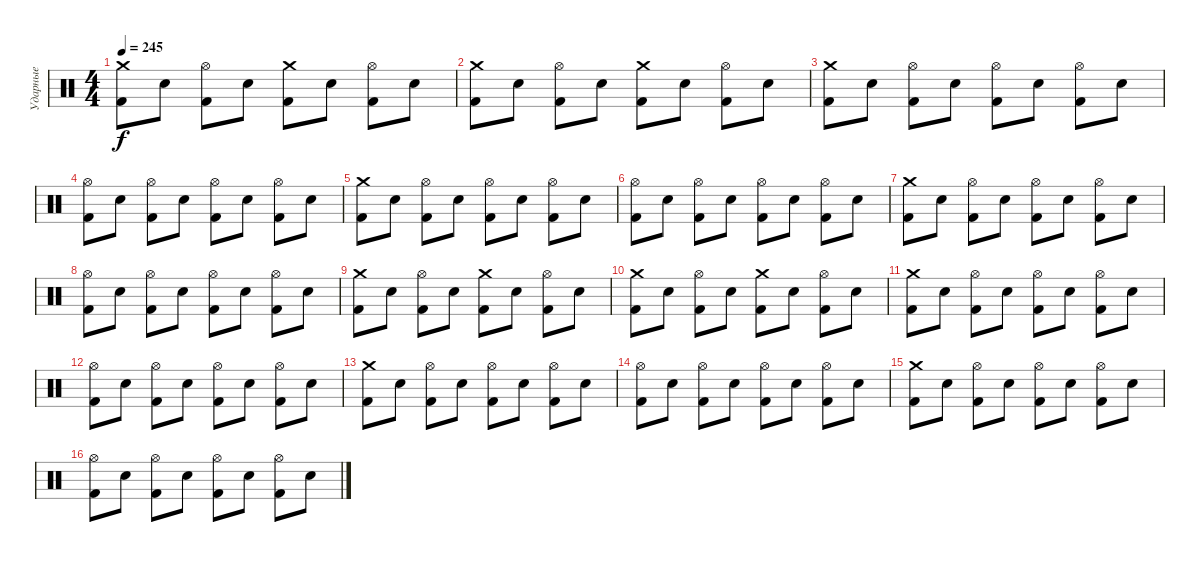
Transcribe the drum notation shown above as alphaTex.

\track ("Ударные" "Ударные") {instrument percussion}
\staff {score}
\articulation defaults
\ts (4 4)
\tempo 245
\clef neutral
\ks c
("Crash medium (hit)" "Kick (hit) 2").8{dy f} "Snare (hit) 2".8 ("Hi-Hat (open)" "Kick (hit) 2").8 "Snare (hit) 2".8 ("Crash medium (hit)" "Kick (hit) 2").8 "Snare (hit) 2".8 ("Hi-Hat (open)" "Kick (hit) 2").8 "Snare (hit) 2".8 |
("Crash medium (hit)" "Kick (hit) 2").8 "Snare (hit) 2".8 ("Hi-Hat (open)" "Kick (hit) 2").8 "Snare (hit) 2".8 ("Crash medium (hit)" "Kick (hit) 2").8 "Snare (hit) 2".8 ("Hi-Hat (open)" "Kick (hit) 2").8 "Snare (hit) 2".8 |
("Crash medium (hit)" "Kick (hit) 2").8 "Snare (hit) 2".8 ("Hi-Hat (open)" "Kick (hit) 2").8 "Snare (hit) 2".8 ("Hi-Hat (open)" "Kick (hit) 2").8 "Snare (hit) 2".8 ("Hi-Hat (open)" "Kick (hit) 2").8 "Snare (hit) 2".8 |
("Hi-Hat (open)" "Kick (hit) 2").8 "Snare (hit) 2".8 ("Hi-Hat (open)" "Kick (hit) 2").8 "Snare (hit) 2".8 ("Hi-Hat (open)" "Kick (hit) 2").8 "Snare (hit) 2".8 ("Hi-Hat (open)" "Kick (hit) 2").8 "Snare (hit) 2".8 |
("Crash medium (hit)" "Kick (hit) 2").8 "Snare (hit) 2".8 ("Hi-Hat (open)" "Kick (hit) 2").8 "Snare (hit) 2".8 ("Hi-Hat (open)" "Kick (hit) 2").8 "Snare (hit) 2".8 ("Hi-Hat (open)" "Kick (hit) 2").8 "Snare (hit) 2".8 |
("Hi-Hat (open)" "Kick (hit) 2").8 "Snare (hit) 2".8 ("Hi-Hat (open)" "Kick (hit) 2").8 "Snare (hit) 2".8 ("Hi-Hat (open)" "Kick (hit) 2").8 "Snare (hit) 2".8 ("Hi-Hat (open)" "Kick (hit) 2").8 "Snare (hit) 2".8 |
("Crash medium (hit)" "Kick (hit) 2").8 "Snare (hit) 2".8 ("Hi-Hat (open)" "Kick (hit) 2").8 "Snare (hit) 2".8 ("Hi-Hat (open)" "Kick (hit) 2").8 "Snare (hit) 2".8 ("Hi-Hat (open)" "Kick (hit) 2").8 "Snare (hit) 2".8 |
("Hi-Hat (open)" "Kick (hit) 2").8 "Snare (hit) 2".8 ("Hi-Hat (open)" "Kick (hit) 2").8 "Snare (hit) 2".8 ("Hi-Hat (open)" "Kick (hit) 2").8 "Snare (hit) 2".8 ("Hi-Hat (open)" "Kick (hit) 2").8 "Snare (hit) 2".8 |
("Crash medium (hit)" "Kick (hit) 2").8 "Snare (hit) 2".8 ("Hi-Hat (open)" "Kick (hit) 2").8 "Snare (hit) 2".8 ("Crash medium (hit)" "Kick (hit) 2").8 "Snare (hit) 2".8 ("Hi-Hat (open)" "Kick (hit) 2").8 "Snare (hit) 2".8 |
("Crash medium (hit)" "Kick (hit) 2").8 "Snare (hit) 2".8 ("Hi-Hat (open)" "Kick (hit) 2").8 "Snare (hit) 2".8 ("Crash medium (hit)" "Kick (hit) 2").8 "Snare (hit) 2".8 ("Hi-Hat (open)" "Kick (hit) 2").8 "Snare (hit) 2".8 |
("Crash medium (hit)" "Kick (hit) 2").8 "Snare (hit) 2".8 ("Hi-Hat (open)" "Kick (hit) 2").8 "Snare (hit) 2".8 ("Hi-Hat (open)" "Kick (hit) 2").8 "Snare (hit) 2".8 ("Hi-Hat (open)" "Kick (hit) 2").8 "Snare (hit) 2".8 |
("Hi-Hat (open)" "Kick (hit) 2").8 "Snare (hit) 2".8 ("Hi-Hat (open)" "Kick (hit) 2").8 "Snare (hit) 2".8 ("Hi-Hat (open)" "Kick (hit) 2").8 "Snare (hit) 2".8 ("Hi-Hat (open)" "Kick (hit) 2").8 "Snare (hit) 2".8 |
("Crash medium (hit)" "Kick (hit) 2").8 "Snare (hit) 2".8 ("Hi-Hat (open)" "Kick (hit) 2").8 "Snare (hit) 2".8 ("Hi-Hat (open)" "Kick (hit) 2").8 "Snare (hit) 2".8 ("Hi-Hat (open)" "Kick (hit) 2").8 "Snare (hit) 2".8 |
("Hi-Hat (open)" "Kick (hit) 2").8 "Snare (hit) 2".8 ("Hi-Hat (open)" "Kick (hit) 2").8 "Snare (hit) 2".8 ("Hi-Hat (open)" "Kick (hit) 2").8 "Snare (hit) 2".8 ("Hi-Hat (open)" "Kick (hit) 2").8 "Snare (hit) 2".8 |
("Crash medium (hit)" "Kick (hit) 2").8 "Snare (hit) 2".8 ("Hi-Hat (open)" "Kick (hit) 2").8 "Snare (hit) 2".8 ("Hi-Hat (open)" "Kick (hit) 2").8 "Snare (hit) 2".8 ("Hi-Hat (open)" "Kick (hit) 2").8 "Snare (hit) 2".8 |
("Hi-Hat (open)" "Kick (hit) 2").8 "Snare (hit) 2".8 ("Hi-Hat (open)" "Kick (hit) 2").8 "Snare (hit) 2".8 ("Hi-Hat (open)" "Kick (hit) 2").8 "Snare (hit) 2".8 ("Hi-Hat (open)" "Kick (hit) 2").8 "Snare (hit) 2".8
